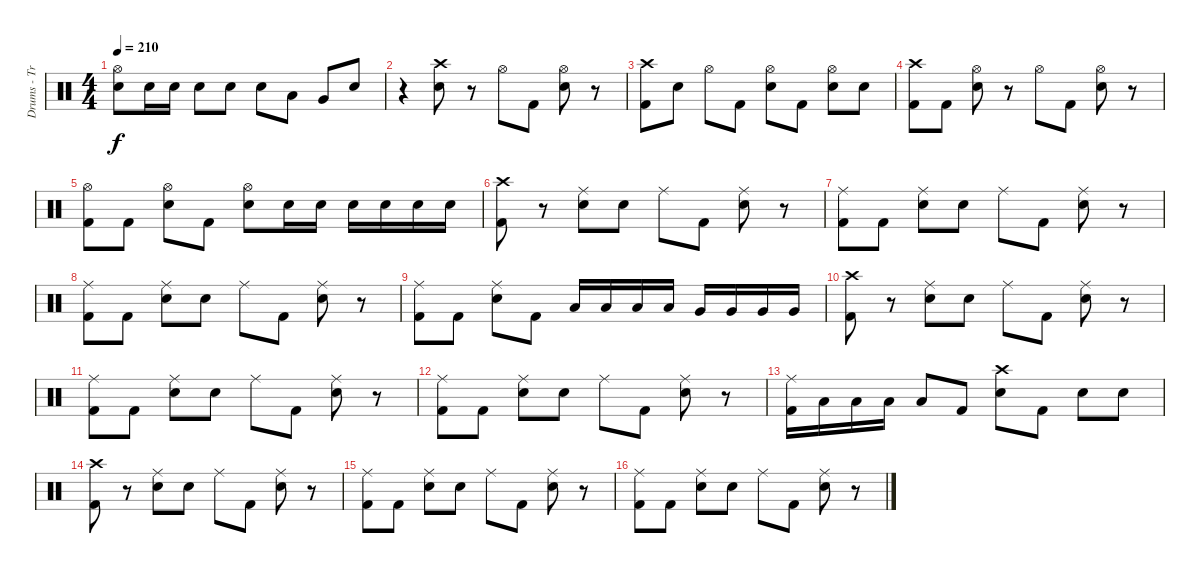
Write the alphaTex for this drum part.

\track ("Drums - Travis Barker" "Drums - Tr") {instrument percussion}
\staff {score}
\articulation defaults
\ts (4 4)
\tempo 210
\clef neutral
\ks c
("Hi-Hat (open)" "Electric Snare (hit)").8{dy f} "Electric Snare (hit)".16 "Electric Snare (hit)".16 "Electric Snare (hit)".8 "Electric Snare (hit)".8 "Electric Snare (hit)".8 "Low Tom (hit)".8 "Very Low Tom (hit)".8 "Electric Snare (hit)".8 |
r.4 ("Crash high (hit)" "Electric Snare (hit)").8 r.8 "Hi-Hat (open)".8 "Kick (hit) 2".8 ("Hi-Hat (open)" "Electric Snare (hit)").8 r.8 |
("Crash high (hit)" "Kick (hit) 2").8 "Electric Snare (hit)".8 "Hi-Hat (open)".8 "Kick (hit) 2".8 ("Hi-Hat (open)" "Electric Snare (hit)").8 "Kick (hit) 2".8 ("Hi-Hat (open)" "Electric Snare (hit)").8 "Electric Snare (hit)".8 |
("Crash high (hit)" "Kick (hit) 2").8 "Kick (hit) 2".8 ("Hi-Hat (open)" "Electric Snare (hit)").8 r.8 "Hi-Hat (open)".8 "Kick (hit) 2".8 ("Hi-Hat (open)" "Electric Snare (hit)").8 r.8 |
("Hi-Hat (open)" "Kick (hit) 2").8 "Kick (hit) 2".8 ("Hi-Hat (open)" "Electric Snare (hit)").8 "Kick (hit) 2".8 ("Hi-Hat (open)" "Electric Snare (hit)").8 "Electric Snare (hit)".16 "Electric Snare (hit)".16 "Electric Snare (hit)".16 "Electric Snare (hit)".16 "Electric Snare (hit)".16 "Electric Snare (hit)".16 |
("Crash high (hit)" "Kick (hit) 2").8 r.8 ("Ride (middle)" "Electric Snare (hit)").8 "Electric Snare (hit)".8 "Ride (middle)".8 "Kick (hit) 2".8 ("Ride (middle)" "Electric Snare (hit)").8 r.8 |
("Ride (middle)" "Kick (hit) 2").8 "Kick (hit) 2".8 ("Ride (middle)" "Electric Snare (hit)").8 "Electric Snare (hit)".8 "Ride (middle)".8 "Kick (hit) 2".8 ("Ride (middle)" "Electric Snare (hit)").8 r.8 |
("Ride (middle)" "Kick (hit) 2").8 "Kick (hit) 2".8 ("Ride (middle)" "Electric Snare (hit)").8 "Electric Snare (hit)".8 "Ride (middle)".8 "Kick (hit) 2".8 ("Ride (middle)" "Electric Snare (hit)").8 r.8 |
("Ride (middle)" "Kick (hit) 2").8 "Kick (hit) 2".8 ("Ride (middle)" "Electric Snare (hit)").8 "Kick (hit) 2".8 "Low Tom (hit)".16 "Low Tom (hit)".16 "Low Tom (hit)".16 "Low Tom (hit)".16 "Very Low Tom (hit)".16 "Very Low Tom (hit)".16 "Very Low Tom (hit)".16 "Very Low Tom (hit)".16 |
("Crash high (hit)" "Kick (hit) 2").8 r.8 ("Ride (middle)" "Electric Snare (hit)").8 "Electric Snare (hit)".8 "Ride (middle)".8 "Kick (hit) 2".8 ("Ride (middle)" "Electric Snare (hit)").8 r.8 |
("Ride (middle)" "Kick (hit) 2").8 "Kick (hit) 2".8 ("Ride (middle)" "Electric Snare (hit)").8 "Electric Snare (hit)".8 "Ride (middle)".8 "Kick (hit) 2".8 ("Ride (middle)" "Electric Snare (hit)").8 r.8 |
("Ride (middle)" "Kick (hit) 2").8 "Kick (hit) 2".8 ("Ride (middle)" "Electric Snare (hit)").8 "Electric Snare (hit)".8 "Ride (middle)".8 "Kick (hit) 2".8 ("Ride (middle)" "Electric Snare (hit)").8 r.8 |
("Ride (middle)" "Kick (hit) 2").16 "Low Tom (hit)".16 "Low Tom (hit)".16 "Low Tom (hit)".16 "Low Tom (hit)".8 "Kick (hit) 2".8 ("Crash high (hit)" "Electric Snare (hit)").8 "Kick (hit) 2".8 "Electric Snare (hit)".8 "Electric Snare (hit)".8 |
("Crash high (hit)" "Kick (hit) 2").8 r.8 ("Ride (middle)" "Electric Snare (hit)").8 "Electric Snare (hit)".8 "Ride (middle)".8 "Kick (hit) 2".8 ("Ride (middle)" "Electric Snare (hit)").8 r.8 |
("Ride (middle)" "Kick (hit) 2").8 "Kick (hit) 2".8 ("Ride (middle)" "Electric Snare (hit)").8 "Electric Snare (hit)".8 "Ride (middle)".8 "Kick (hit) 2".8 ("Ride (middle)" "Electric Snare (hit)").8 r.8 |
("Ride (middle)" "Kick (hit) 2").8 "Kick (hit) 2".8 ("Ride (middle)" "Electric Snare (hit)").8 "Electric Snare (hit)".8 "Ride (middle)".8 "Kick (hit) 2".8 ("Ride (middle)" "Electric Snare (hit)").8 r.8
